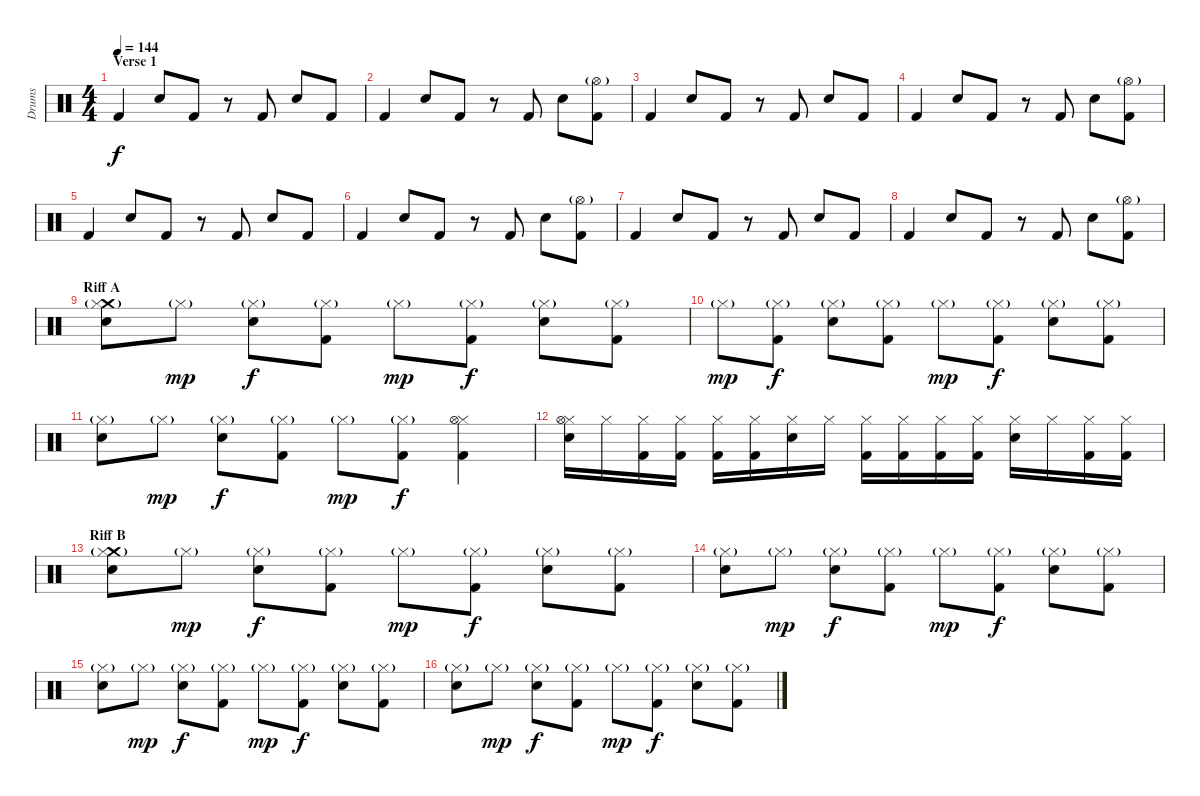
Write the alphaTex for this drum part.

\track ("Drums" "Drums") {instrument percussion}
\staff {score}
\articulation defaults
\ts (4 4)
\section ("" "Verse 1")
\tempo 144
\clef neutral
\ks c "Kick (hit) 2".4{dy f} "Snare (hit) 2".8 "Kick (hit) 2".8
r.8 "Kick (hit) 2".8 "Snare (hit) 2".8 "Kick (hit) 2".8 |
"Kick (hit) 2".4 "Snare (hit) 2".8 "Kick (hit) 2".8 r.8 "Kick (hit) 2".8 "Snare (hit) 2".8 ("Hi-Hat (open)"{g} "Kick (hit) 2").8 |
"Kick (hit) 2".4 "Snare (hit) 2".8 "Kick (hit) 2".8 r.8 "Kick (hit) 2".8 "Snare (hit) 2".8 "Kick (hit) 2".8 |
"Kick (hit) 2".4 "Snare (hit) 2".8 "Kick (hit) 2".8 r.8 "Kick (hit) 2".8 "Snare (hit) 2".8 ("Hi-Hat (open)"{g} "Kick (hit) 2").8 |
"Kick (hit) 2".4 "Snare (hit) 2".8 "Kick (hit) 2".8 r.8 "Kick (hit) 2".8 "Snare (hit) 2".8 "Kick (hit) 2".8 |
"Kick (hit) 2".4 "Snare (hit) 2".8 "Kick (hit) 2".8 r.8 "Kick (hit) 2".8 "Snare (hit) 2".8 ("Hi-Hat (open)"{g} "Kick (hit) 2").8 |
"Kick (hit) 2".4 "Snare (hit) 2".8 "Kick (hit) 2".8 r.8 "Kick (hit) 2".8 "Snare (hit) 2".8 "Kick (hit) 2".8 |
"Kick (hit) 2".4 "Snare (hit) 2".8 "Kick (hit) 2".8 r.8 "Kick (hit) 2".8 "Snare (hit) 2".8 ("Hi-Hat (open)"{g} "Kick (hit) 2").8 |
\section ("" "Riff A")
("Crash medium (hit)" "Hi-Hat (closed)"{g} "Electric Snare (hit)").8 "Hi-Hat (closed)"{g}.8{dy mp} ("Hi-Hat (closed)"{g} "Electric Snare (hit)").8{dy f} ("Hi-Hat (closed)"{g} "Kick (hit) 2").8 "Hi-Hat (closed)"{g}.8{dy mp} ("Hi-Hat (closed)"{g} "Kick (hit) 2").8{dy f} ("Hi-Hat (closed)"{g} "Electric Snare (hit)").8 ("Hi-Hat (closed)"{g} "Kick (hit) 2").8 |
"Hi-Hat (closed)"{g}.8{dy mp} ("Hi-Hat (closed)"{g} "Kick (hit) 2").8{dy f} ("Hi-Hat (closed)"{g} "Electric Snare (hit)").8 ("Hi-Hat (closed)"{g} "Kick (hit) 2").8 "Hi-Hat (closed)"{g}.8{dy mp} ("Hi-Hat (closed)"{g} "Kick (hit) 2").8{dy f} ("Hi-Hat (closed)"{g} "Electric Snare (hit)").8 ("Hi-Hat (closed)"{g} "Kick (hit) 2").8 |
("Hi-Hat (closed)"{g} "Electric Snare (hit)").8 "Hi-Hat (closed)"{g}.8{dy mp} ("Hi-Hat (closed)"{g} "Electric Snare (hit)").8{dy f} ("Hi-Hat (closed)"{g} "Kick (hit) 2").8 "Hi-Hat (closed)"{g}.8{dy mp} ("Hi-Hat (closed)"{g} "Kick (hit) 2").8{dy f} ("Hi-Hat (closed)" "Hi-Hat (open)" "Kick (hit) 2").4 |
("Hi-Hat (closed)" "Hi-Hat (open)" "Snare (hit) 2").16 "Hi-Hat (closed)".16 ("Hi-Hat (closed)" "Kick (hit) 2").16 ("Hi-Hat (closed)" "Kick (hit) 2").16 ("Hi-Hat (closed)" "Kick (hit) 2").16 ("Hi-Hat (closed)" "Kick (hit) 2").16 ("Hi-Hat (closed)" "Snare (hit) 2").16 "Hi-Hat (closed)".16 ("Hi-Hat (closed)" "Kick (hit) 2").16 ("Hi-Hat (closed)" "Kick (hit) 2").16 ("Hi-Hat (closed)" "Kick (hit) 2").16 ("Hi-Hat (closed)" "Kick (hit) 2").16 ("Hi-Hat (closed)" "Snare (hit) 2").16 "Hi-Hat (closed)".16 ("Hi-Hat (closed)" "Kick (hit) 2").16 ("Hi-Hat (closed)" "Kick (hit) 2").16 |
\section ("" "Riff B")
("Crash medium (hit)" "Hi-Hat (closed)"{g} "Electric Snare (hit)").8 "Hi-Hat (closed)"{g}.8{dy mp} ("Hi-Hat (closed)"{g} "Electric Snare (hit)").8{dy f} ("Hi-Hat (closed)"{g} "Kick (hit) 2").8 "Hi-Hat (closed)"{g}.8{dy mp} ("Hi-Hat (closed)"{g} "Kick (hit) 2").8{dy f} ("Hi-Hat (closed)"{g} "Electric Snare (hit)").8 ("Hi-Hat (closed)"{g} "Kick (hit) 2").8 |
("Hi-Hat (closed)"{g} "Electric Snare (hit)").8 "Hi-Hat (closed)"{g}.8{dy mp} ("Hi-Hat (closed)"{g} "Electric Snare (hit)").8{dy f} ("Hi-Hat (closed)"{g} "Kick (hit) 2").8 "Hi-Hat (closed)"{g}.8{dy mp} ("Hi-Hat (closed)"{g} "Kick (hit) 2").8{dy f} ("Hi-Hat (closed)"{g} "Electric Snare (hit)").8 ("Hi-Hat (closed)"{g} "Kick (hit) 2").8 |
("Hi-Hat (closed)"{g} "Electric Snare (hit)").8 "Hi-Hat (closed)"{g}.8{dy mp} ("Hi-Hat (closed)"{g} "Electric Snare (hit)").8{dy f} ("Hi-Hat (closed)"{g} "Kick (hit) 2").8 "Hi-Hat (closed)"{g}.8{dy mp} ("Hi-Hat (closed)"{g} "Kick (hit) 2").8{dy f} ("Hi-Hat (closed)"{g} "Electric Snare (hit)").8 ("Hi-Hat (closed)"{g} "Kick (hit) 2").8 |
("Hi-Hat (closed)"{g} "Electric Snare (hit)").8 "Hi-Hat (closed)"{g}.8{dy mp} ("Hi-Hat (closed)"{g} "Electric Snare (hit)").8{dy f} ("Hi-Hat (closed)"{g} "Kick (hit) 2").8 "Hi-Hat (closed)"{g}.8{dy mp} ("Hi-Hat (closed)"{g} "Kick (hit) 2").8{dy f} ("Hi-Hat (closed)"{g} "Electric Snare (hit)").8 ("Hi-Hat (closed)"{g} "Kick (hit) 2").8
